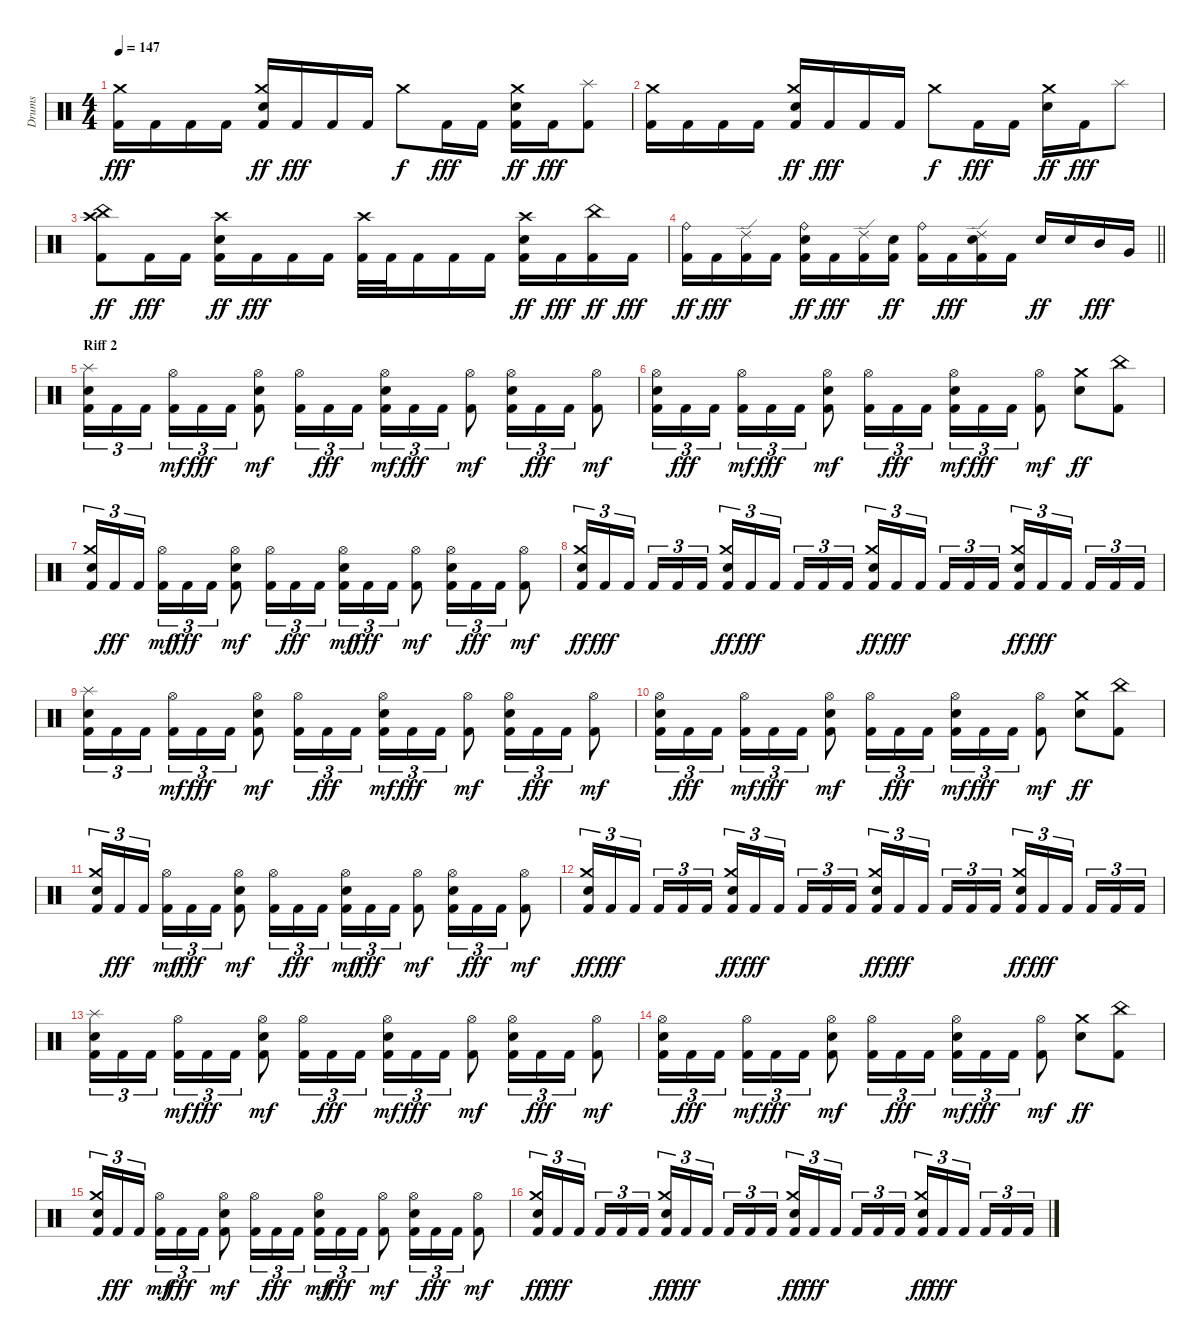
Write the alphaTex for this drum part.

\track ("Drums" "Drums") {instrument percussion}
\staff {score}
\articulation defaults
\ts (4 4)
\tempo 147
\clef neutral
\ks c
("Kick (hit) 2" "Crash medium (hit)").16{dy fff} "Kick (hit) 2".16 "Kick (hit) 2".16 "Kick (hit) 2".16 ("Kick (hit) 2" "Snare (hit) 2" "Crash medium (hit)").16{dy ff} "Kick (hit) 2".16{dy fff} "Kick (hit) 2".16 "Kick (hit) 2".16 "Crash medium (hit)".8{dy f} "Kick (hit) 2".16{dy fff} "Kick (hit) 2".16 ("Kick (hit) 2" "Snare (hit) 2" "Crash medium (hit)").16{dy ff} "Kick (hit) 2".16{dy fff} ("Kick (hit) 2" "Splash (hit)").8 |
("Kick (hit) 2" "Crash medium (hit)").16 "Kick (hit) 2".16 "Kick (hit) 2".16 "Kick (hit) 2".16 ("Kick (hit) 2" "Snare (hit) 2" "Crash medium (hit)").16{dy ff} "Kick (hit) 2".16{dy fff} "Kick (hit) 2".16 "Kick (hit) 2".16 "Crash medium (hit)".8{dy f} "Kick (hit) 2".16{dy fff} "Kick (hit) 2".16 ("Snare (hit) 2" "Crash medium (hit)").16{dy ff} "Kick (hit) 2".16{dy fff} "Splash (hit)".8 |
("Kick (hit) 2" "China (hit)" "Crash high (hit)").8{dy ff} "Kick (hit) 2".16{dy fff} "Kick (hit) 2".16 ("Kick (hit) 2" "Snare (hit) 2" "Crash high (hit)").16{dy ff} "Kick (hit) 2".16{dy fff} "Kick (hit) 2".16 "Kick (hit) 2".16 ("Kick (hit) 2" "Crash high (hit)").32 "Kick (hit) 2".32 "Kick (hit) 2".16 "Kick (hit) 2".16 "Kick (hit) 2".16 ("Kick (hit) 2" "Snare (hit) 2" "Crash high (hit)").16{dy ff} "Kick (hit) 2".16{dy fff} ("Kick (hit) 2" "China (hit)").16{dy ff} "Kick (hit) 2".16{dy fff} |
\barLineRight lightlight
("Kick (hit) 2" "Ride (bell)").16{dy ff} "Kick (hit) 2".16{dy fff} ("Kick (hit) 2" "Ride (edge) 2").16 "Kick (hit) 2".16 ("Kick (hit) 2" "Snare (hit) 2" "Ride (bell)").16{dy ff} "Kick (hit) 2".16{dy fff} ("Kick (hit) 2" "Ride (edge) 2").16 ("Kick (hit) 2" "Snare (hit) 2").16{dy ff} ("Kick (hit) 2" "Ride (bell)").16 "Kick (hit) 2".16{dy fff} ("Kick (hit) 2" "Snare (hit) 2" "Ride (edge) 2").16 "Kick (hit) 2".16 "Snare (hit) 2".16{dy ff} "Snare (hit) 2".16 "Mid Tom (hit)".16{dy fff} "Very Low Tom (hit)".16 |
\section ("" "Riff 2")
("Kick (hit) 2" "Snare (hit) 2" "Splash (hit)").16{tu (3 2)} "Kick (hit) 2".16{tu (3 2)} "Kick (hit) 2".16{tu (3 2) beam splitsecondary} ("Kick (hit) 2" "Hi-Hat (open)").16{tu (3 2) dy mf} "Kick (hit) 2".16{tu (3 2) dy fff} "Kick (hit) 2".16{tu (3 2)} ("Kick (hit) 2" "Snare (hit) 2" "Hi-Hat (open)").8{dy mf} ("Kick (hit) 2" "Hi-Hat (open)").16{tu (3 2)} "Kick (hit) 2".16{tu (3 2) dy fff} "Kick (hit) 2".16{tu (3 2)} ("Kick (hit) 2" "Snare (hit) 2" "Hi-Hat (open)").16{tu (3 2) dy mf} "Kick (hit) 2".16{tu (3 2) dy fff} "Kick (hit) 2".16{tu (3 2)} ("Kick (hit) 2" "Hi-Hat (open)").8{dy mf} ("Kick (hit) 2" "Snare (hit) 2" "Hi-Hat (open)").16{tu (3 2)} "Kick (hit) 2".16{tu (3 2) dy fff} "Kick (hit) 2".16{tu (3 2)} ("Kick (hit) 2" "Hi-Hat (open)").8{dy mf} |
("Kick (hit) 2" "Snare (hit) 2" "Hi-Hat (open)").16{tu (3 2)} "Kick (hit) 2".16{tu (3 2) dy fff} "Kick (hit) 2".16{tu (3 2) beam splitsecondary} ("Kick (hit) 2" "Hi-Hat (open)").16{tu (3 2) dy mf} "Kick (hit) 2".16{tu (3 2) dy fff} "Kick (hit) 2".16{tu (3 2)} ("Kick (hit) 2" "Snare (hit) 2" "Hi-Hat (open)").8{dy mf} ("Kick (hit) 2" "Hi-Hat (open)").16{tu (3 2)} "Kick (hit) 2".16{tu (3 2) dy fff} "Kick (hit) 2".16{tu (3 2)} ("Kick (hit) 2" "Snare (hit) 2" "Hi-Hat (open)").16{tu (3 2) dy mf} "Kick (hit) 2".16{tu (3 2) dy fff} "Kick (hit) 2".16{tu (3 2)} ("Kick (hit) 2" "Hi-Hat (open)").8{dy mf} ("Snare (hit) 2" "Crash medium (hit)").8{dy ff} ("Kick (hit) 2" "China (hit)").8 |
("Kick (hit) 2" "Snare (hit) 2" "Crash medium (hit)").16{tu (3 2)} "Kick (hit) 2".16{tu (3 2) dy fff} "Kick (hit) 2".16{tu (3 2) beam splitsecondary} ("Kick (hit) 2" "Hi-Hat (open)").16{tu (3 2) dy mf} "Kick (hit) 2".16{tu (3 2) dy fff} "Kick (hit) 2".16{tu (3 2)} ("Kick (hit) 2" "Snare (hit) 2" "Hi-Hat (open)").8{dy mf} ("Kick (hit) 2" "Hi-Hat (open)").16{tu (3 2)} "Kick (hit) 2".16{tu (3 2) dy fff} "Kick (hit) 2".16{tu (3 2)} ("Kick (hit) 2" "Snare (hit) 2" "Hi-Hat (open)").16{tu (3 2) dy mf} "Kick (hit) 2".16{tu (3 2) dy fff} "Kick (hit) 2".16{tu (3 2)} ("Kick (hit) 2" "Hi-Hat (open)").8{dy mf} ("Kick (hit) 2" "Snare (hit) 2" "Hi-Hat (open)").16{tu (3 2)} "Kick (hit) 2".16{tu (3 2) dy fff} "Kick (hit) 2".16{tu (3 2)} ("Kick (hit) 2" "Hi-Hat (open)").8{dy mf} |
("Kick (hit) 2" "Snare (hit) 2" "Crash medium (hit)").16{tu (3 2) dy ff} "Kick (hit) 2".16{tu (3 2) dy fff} "Kick (hit) 2".16{tu (3 2) beam splitsecondary} "Kick (hit) 2".16{tu (3 2)} "Kick (hit) 2".16{tu (3 2)} "Kick (hit) 2".16{tu (3 2)} ("Kick (hit) 2" "Snare (hit) 2" "Crash medium (hit)").16{tu (3 2) dy ff} "Kick (hit) 2".16{tu (3 2) dy fff} "Kick (hit) 2".16{tu (3 2) beam splitsecondary} "Kick (hit) 2".16{tu (3 2)} "Kick (hit) 2".16{tu (3 2)} "Kick (hit) 2".16{tu (3 2)} ("Kick (hit) 2" "Snare (hit) 2" "Crash medium (hit)").16{tu (3 2) dy ff} "Kick (hit) 2".16{tu (3 2) dy fff} "Kick (hit) 2".16{tu (3 2) beam splitsecondary} "Kick (hit) 2".16{tu (3 2)} "Kick (hit) 2".16{tu (3 2)} "Kick (hit) 2".16{tu (3 2)} ("Kick (hit) 2" "Snare (hit) 2" "Crash medium (hit)").16{tu (3 2) dy ff} "Kick (hit) 2".16{tu (3 2) dy fff} "Kick (hit) 2".16{tu (3 2) beam splitsecondary} "Kick (hit) 2".16{tu (3 2)} "Kick (hit) 2".16{tu (3 2)} "Kick (hit) 2".16{tu (3 2)} |
("Kick (hit) 2" "Snare (hit) 2" "Splash (hit)").16{tu (3 2)} "Kick (hit) 2".16{tu (3 2)} "Kick (hit) 2".16{tu (3 2) beam splitsecondary} ("Kick (hit) 2" "Hi-Hat (open)").16{tu (3 2) dy mf} "Kick (hit) 2".16{tu (3 2) dy fff} "Kick (hit) 2".16{tu (3 2)} ("Kick (hit) 2" "Snare (hit) 2" "Hi-Hat (open)").8{dy mf} ("Kick (hit) 2" "Hi-Hat (open)").16{tu (3 2)} "Kick (hit) 2".16{tu (3 2) dy fff} "Kick (hit) 2".16{tu (3 2)} ("Kick (hit) 2" "Snare (hit) 2" "Hi-Hat (open)").16{tu (3 2) dy mf} "Kick (hit) 2".16{tu (3 2) dy fff} "Kick (hit) 2".16{tu (3 2)} ("Kick (hit) 2" "Hi-Hat (open)").8{dy mf} ("Kick (hit) 2" "Snare (hit) 2" "Hi-Hat (open)").16{tu (3 2)} "Kick (hit) 2".16{tu (3 2) dy fff} "Kick (hit) 2".16{tu (3 2)} ("Kick (hit) 2" "Hi-Hat (open)").8{dy mf} |
("Kick (hit) 2" "Snare (hit) 2" "Hi-Hat (open)").16{tu (3 2)} "Kick (hit) 2".16{tu (3 2) dy fff} "Kick (hit) 2".16{tu (3 2) beam splitsecondary} ("Kick (hit) 2" "Hi-Hat (open)").16{tu (3 2) dy mf} "Kick (hit) 2".16{tu (3 2) dy fff} "Kick (hit) 2".16{tu (3 2)} ("Kick (hit) 2" "Snare (hit) 2" "Hi-Hat (open)").8{dy mf} ("Kick (hit) 2" "Hi-Hat (open)").16{tu (3 2)} "Kick (hit) 2".16{tu (3 2) dy fff} "Kick (hit) 2".16{tu (3 2)} ("Kick (hit) 2" "Snare (hit) 2" "Hi-Hat (open)").16{tu (3 2) dy mf} "Kick (hit) 2".16{tu (3 2) dy fff} "Kick (hit) 2".16{tu (3 2)} ("Kick (hit) 2" "Hi-Hat (open)").8{dy mf} ("Snare (hit) 2" "Crash medium (hit)").8{dy ff} ("Kick (hit) 2" "China (hit)").8 |
("Kick (hit) 2" "Snare (hit) 2" "Crash medium (hit)").16{tu (3 2)} "Kick (hit) 2".16{tu (3 2) dy fff} "Kick (hit) 2".16{tu (3 2) beam splitsecondary} ("Kick (hit) 2" "Hi-Hat (open)").16{tu (3 2) dy mf} "Kick (hit) 2".16{tu (3 2) dy fff} "Kick (hit) 2".16{tu (3 2)} ("Kick (hit) 2" "Snare (hit) 2" "Hi-Hat (open)").8{dy mf} ("Kick (hit) 2" "Hi-Hat (open)").16{tu (3 2)} "Kick (hit) 2".16{tu (3 2) dy fff} "Kick (hit) 2".16{tu (3 2)} ("Kick (hit) 2" "Snare (hit) 2" "Hi-Hat (open)").16{tu (3 2) dy mf} "Kick (hit) 2".16{tu (3 2) dy fff} "Kick (hit) 2".16{tu (3 2)} ("Kick (hit) 2" "Hi-Hat (open)").8{dy mf} ("Kick (hit) 2" "Snare (hit) 2" "Hi-Hat (open)").16{tu (3 2)} "Kick (hit) 2".16{tu (3 2) dy fff} "Kick (hit) 2".16{tu (3 2)} ("Kick (hit) 2" "Hi-Hat (open)").8{dy mf} |
("Kick (hit) 2" "Snare (hit) 2" "Crash medium (hit)").16{tu (3 2) dy ff} "Kick (hit) 2".16{tu (3 2) dy fff} "Kick (hit) 2".16{tu (3 2) beam splitsecondary} "Kick (hit) 2".16{tu (3 2)} "Kick (hit) 2".16{tu (3 2)} "Kick (hit) 2".16{tu (3 2)} ("Kick (hit) 2" "Snare (hit) 2" "Crash medium (hit)").16{tu (3 2) dy ff} "Kick (hit) 2".16{tu (3 2) dy fff} "Kick (hit) 2".16{tu (3 2) beam splitsecondary} "Kick (hit) 2".16{tu (3 2)} "Kick (hit) 2".16{tu (3 2)} "Kick (hit) 2".16{tu (3 2)} ("Kick (hit) 2" "Snare (hit) 2" "Crash medium (hit)").16{tu (3 2) dy ff} "Kick (hit) 2".16{tu (3 2) dy fff} "Kick (hit) 2".16{tu (3 2) beam splitsecondary} "Kick (hit) 2".16{tu (3 2)} "Kick (hit) 2".16{tu (3 2)} "Kick (hit) 2".16{tu (3 2)} ("Kick (hit) 2" "Snare (hit) 2" "Crash medium (hit)").16{tu (3 2) dy ff} "Kick (hit) 2".16{tu (3 2) dy fff} "Kick (hit) 2".16{tu (3 2) beam splitsecondary} "Kick (hit) 2".16{tu (3 2)} "Kick (hit) 2".16{tu (3 2)} "Kick (hit) 2".16{tu (3 2)} |
("Kick (hit) 2" "Snare (hit) 2" "Splash (hit)").16{tu (3 2)} "Kick (hit) 2".16{tu (3 2)} "Kick (hit) 2".16{tu (3 2) beam splitsecondary} ("Kick (hit) 2" "Hi-Hat (open)").16{tu (3 2) dy mf} "Kick (hit) 2".16{tu (3 2) dy fff} "Kick (hit) 2".16{tu (3 2)} ("Kick (hit) 2" "Snare (hit) 2" "Hi-Hat (open)").8{dy mf} ("Kick (hit) 2" "Hi-Hat (open)").16{tu (3 2)} "Kick (hit) 2".16{tu (3 2) dy fff} "Kick (hit) 2".16{tu (3 2)} ("Kick (hit) 2" "Snare (hit) 2" "Hi-Hat (open)").16{tu (3 2) dy mf} "Kick (hit) 2".16{tu (3 2) dy fff} "Kick (hit) 2".16{tu (3 2)} ("Kick (hit) 2" "Hi-Hat (open)").8{dy mf} ("Kick (hit) 2" "Snare (hit) 2" "Hi-Hat (open)").16{tu (3 2)} "Kick (hit) 2".16{tu (3 2) dy fff} "Kick (hit) 2".16{tu (3 2)} ("Kick (hit) 2" "Hi-Hat (open)").8{dy mf} |
("Kick (hit) 2" "Snare (hit) 2" "Hi-Hat (open)").16{tu (3 2)} "Kick (hit) 2".16{tu (3 2) dy fff} "Kick (hit) 2".16{tu (3 2) beam splitsecondary} ("Kick (hit) 2" "Hi-Hat (open)").16{tu (3 2) dy mf} "Kick (hit) 2".16{tu (3 2) dy fff} "Kick (hit) 2".16{tu (3 2)} ("Kick (hit) 2" "Snare (hit) 2" "Hi-Hat (open)").8{dy mf} ("Kick (hit) 2" "Hi-Hat (open)").16{tu (3 2)} "Kick (hit) 2".16{tu (3 2) dy fff} "Kick (hit) 2".16{tu (3 2)} ("Kick (hit) 2" "Snare (hit) 2" "Hi-Hat (open)").16{tu (3 2) dy mf} "Kick (hit) 2".16{tu (3 2) dy fff} "Kick (hit) 2".16{tu (3 2)} ("Kick (hit) 2" "Hi-Hat (open)").8{dy mf} ("Snare (hit) 2" "Crash medium (hit)").8{dy ff} ("Kick (hit) 2" "China (hit)").8 |
("Kick (hit) 2" "Snare (hit) 2" "Crash medium (hit)").16{tu (3 2)} "Kick (hit) 2".16{tu (3 2) dy fff} "Kick (hit) 2".16{tu (3 2) beam splitsecondary} ("Kick (hit) 2" "Hi-Hat (open)").16{tu (3 2) dy mf} "Kick (hit) 2".16{tu (3 2) dy fff} "Kick (hit) 2".16{tu (3 2)} ("Kick (hit) 2" "Snare (hit) 2" "Hi-Hat (open)").8{dy mf} ("Kick (hit) 2" "Hi-Hat (open)").16{tu (3 2)} "Kick (hit) 2".16{tu (3 2) dy fff} "Kick (hit) 2".16{tu (3 2)} ("Kick (hit) 2" "Snare (hit) 2" "Hi-Hat (open)").16{tu (3 2) dy mf} "Kick (hit) 2".16{tu (3 2) dy fff} "Kick (hit) 2".16{tu (3 2)} ("Kick (hit) 2" "Hi-Hat (open)").8{dy mf} ("Kick (hit) 2" "Snare (hit) 2" "Hi-Hat (open)").16{tu (3 2)} "Kick (hit) 2".16{tu (3 2) dy fff} "Kick (hit) 2".16{tu (3 2)} ("Kick (hit) 2" "Hi-Hat (open)").8{dy mf} |
("Kick (hit) 2" "Snare (hit) 2" "Crash medium (hit)").16{tu (3 2) dy ff} "Kick (hit) 2".16{tu (3 2) dy fff} "Kick (hit) 2".16{tu (3 2) beam splitsecondary} "Kick (hit) 2".16{tu (3 2)} "Kick (hit) 2".16{tu (3 2)} "Kick (hit) 2".16{tu (3 2)} ("Kick (hit) 2" "Snare (hit) 2" "Crash medium (hit)").16{tu (3 2) dy ff} "Kick (hit) 2".16{tu (3 2) dy fff} "Kick (hit) 2".16{tu (3 2) beam splitsecondary} "Kick (hit) 2".16{tu (3 2)} "Kick (hit) 2".16{tu (3 2)} "Kick (hit) 2".16{tu (3 2)} ("Kick (hit) 2" "Snare (hit) 2" "Crash medium (hit)").16{tu (3 2) dy ff} "Kick (hit) 2".16{tu (3 2) dy fff} "Kick (hit) 2".16{tu (3 2) beam splitsecondary} "Kick (hit) 2".16{tu (3 2)} "Kick (hit) 2".16{tu (3 2)} "Kick (hit) 2".16{tu (3 2)} ("Kick (hit) 2" "Snare (hit) 2" "Crash medium (hit)").16{tu (3 2) dy ff} "Kick (hit) 2".16{tu (3 2) dy fff} "Kick (hit) 2".16{tu (3 2) beam splitsecondary} "Kick (hit) 2".16{tu (3 2)} "Kick (hit) 2".16{tu (3 2)} "Kick (hit) 2".16{tu (3 2)}
